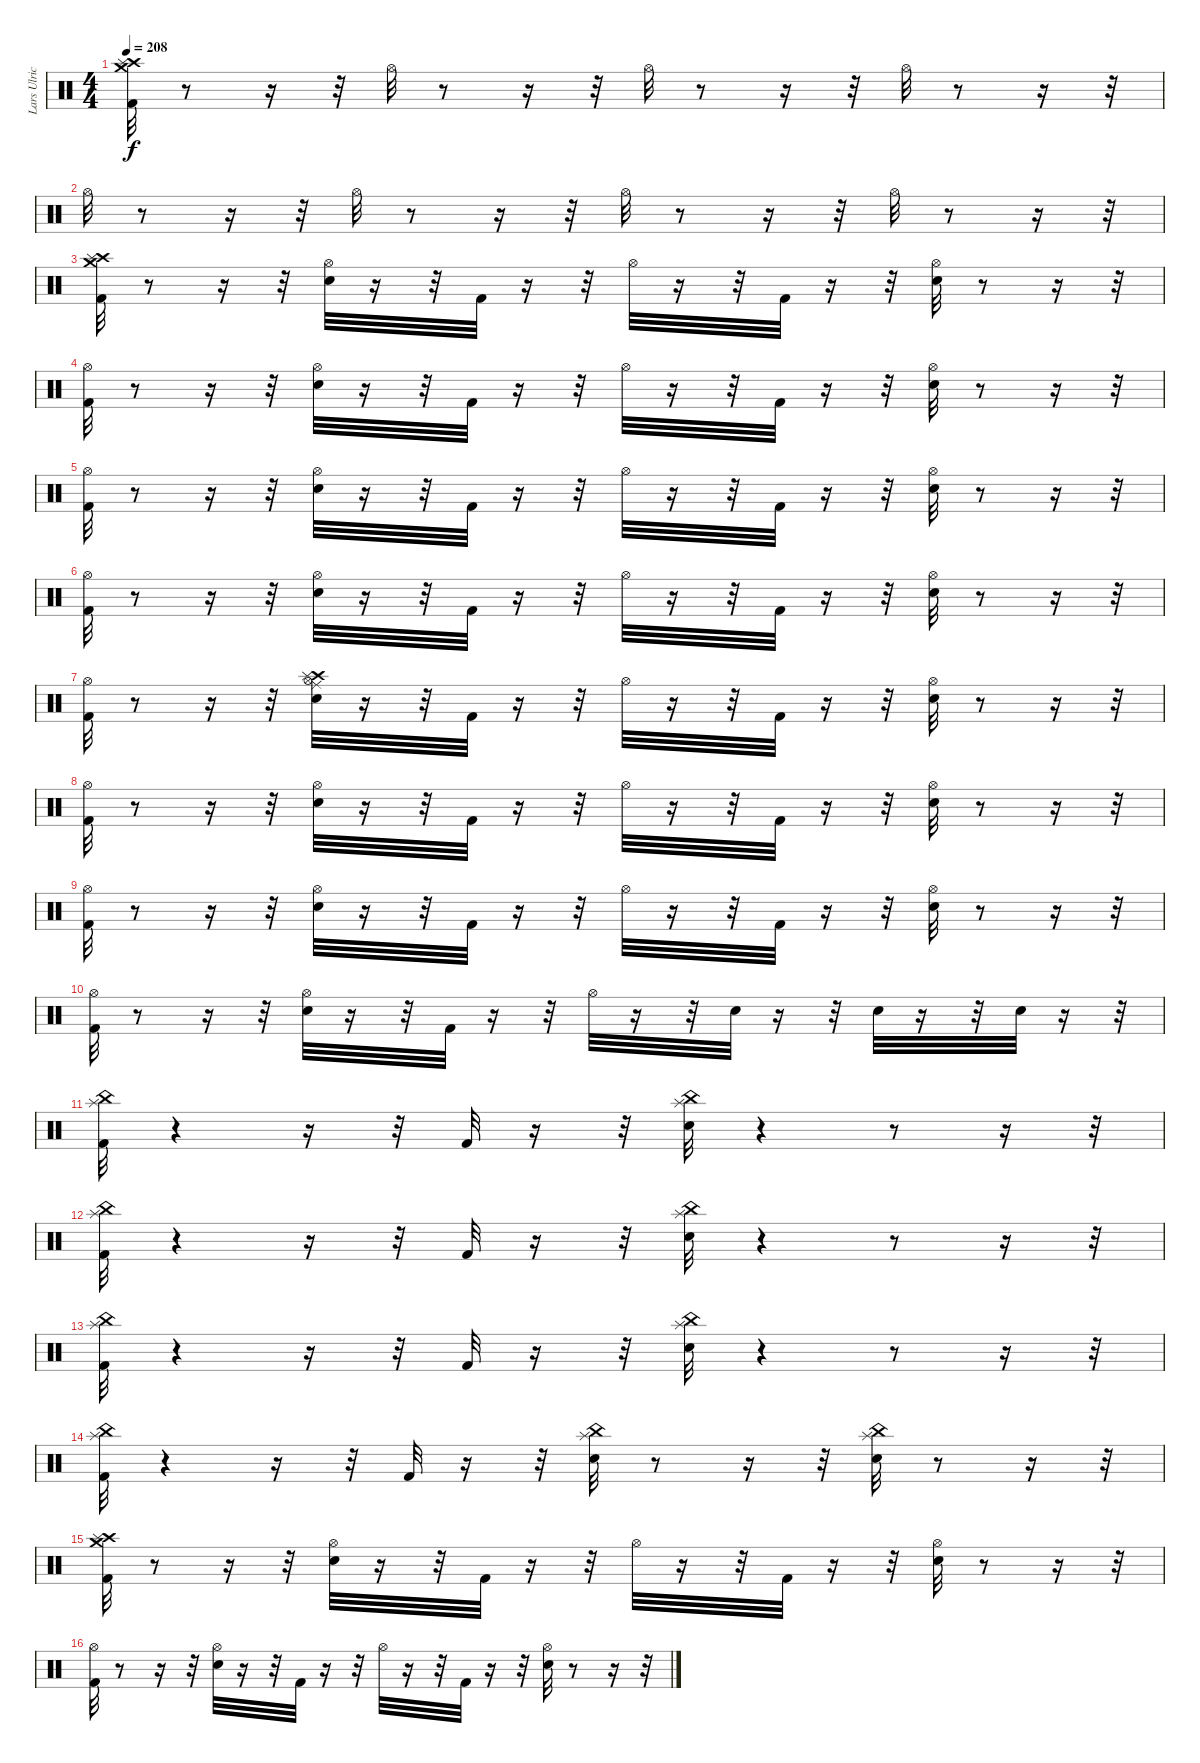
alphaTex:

\track ("Lars Ulrich (Drums)" "Lars Ulric") {instrument percussion}
\staff {score}
\articulation defaults
\ts (4 4)
\tempo 208
\clef neutral
\ks c
("Kick (hit) 2" "Crash high (hit)" "Crash medium (hit)" "Splash (hit)").32{dy f} r.8 r.16 r.32 "Hi-Hat (open)".32 r.8 r.16 r.32 "Hi-Hat (open)".32 r.8 r.16 r.32 "Hi-Hat (open)".32 r.8 r.16 r.32 |
"Hi-Hat (open)".32 r.8 r.16 r.32 "Hi-Hat (open)".32 r.8 r.16 r.32 "Hi-Hat (open)".32 r.8 r.16 r.32 "Hi-Hat (open)".32 r.8 r.16 r.32 |
("Kick (hit) 2" "Crash high (hit)" "Crash medium (hit)" "Splash (hit)").32 r.8 r.16 r.32 ("Snare (hit) 2" "Hi-Hat (open)").32 r.16 r.32 "Kick (hit) 2".32 r.16 r.32 "Hi-Hat (open)".32 r.16 r.32 "Kick (hit) 2".32 r.16 r.32 ("Snare (hit) 2" "Hi-Hat (open)").32 r.8 r.16 r.32 |
("Kick (hit) 2" "Hi-Hat (open)").32 r.8 r.16 r.32 ("Snare (hit) 2" "Hi-Hat (open)").32 r.16 r.32 "Kick (hit) 2".32 r.16 r.32 "Hi-Hat (open)".32 r.16 r.32 "Kick (hit) 2".32 r.16 r.32 ("Snare (hit) 2" "Hi-Hat (open)").32 r.8 r.16 r.32 |
("Kick (hit) 2" "Hi-Hat (open)").32 r.8 r.16 r.32 ("Snare (hit) 2" "Hi-Hat (open)").32 r.16 r.32 "Kick (hit) 2".32 r.16 r.32 "Hi-Hat (open)".32 r.16 r.32 "Kick (hit) 2".32 r.16 r.32 ("Snare (hit) 2" "Hi-Hat (open)").32 r.8 r.16 r.32 |
("Kick (hit) 2" "Hi-Hat (open)").32 r.8 r.16 r.32 ("Snare (hit) 2" "Hi-Hat (open)").32 r.16 r.32 "Kick (hit) 2".32 r.16 r.32 "Hi-Hat (open)".32 r.16 r.32 "Kick (hit) 2".32 r.16 r.32 ("Snare (hit) 2" "Hi-Hat (open)").32 r.8 r.16 r.32 |
("Kick (hit) 2" "Hi-Hat (open)").32 r.8 r.16 r.32 ("Crash high (hit)" "Ride (middle)" "Splash (hit)" "Snare (hit) 2" "Hi-Hat (open)").32 r.16 r.32 "Kick (hit) 2".32 r.16 r.32 "Hi-Hat (open)".32 r.16 r.32 "Kick (hit) 2".32 r.16 r.32 ("Snare (hit) 2" "Hi-Hat (open)").32 r.8 r.16 r.32 |
("Kick (hit) 2" "Hi-Hat (open)").32 r.8 r.16 r.32 ("Snare (hit) 2" "Hi-Hat (open)").32 r.16 r.32 "Kick (hit) 2".32 r.16 r.32 "Hi-Hat (open)".32 r.16 r.32 "Kick (hit) 2".32 r.16 r.32 ("Snare (hit) 2" "Hi-Hat (open)").32 r.8 r.16 r.32 |
("Kick (hit) 2" "Hi-Hat (open)").32 r.8 r.16 r.32 ("Snare (hit) 2" "Hi-Hat (open)").32 r.16 r.32 "Kick (hit) 2".32 r.16 r.32 "Hi-Hat (open)".32 r.16 r.32 "Kick (hit) 2".32 r.16 r.32 ("Snare (hit) 2" "Hi-Hat (open)").32 r.8 r.16 r.32 |
("Kick (hit) 2" "Hi-Hat (open)").32 r.8 r.16 r.32 ("Snare (hit) 2" "Hi-Hat (open)").32 r.16 r.32 "Kick (hit) 2".32 r.16 r.32 "Hi-Hat (open)".32 r.16 r.32 "Snare (hit) 2".32 r.16 r.32 "Snare (hit) 2".32 r.16 r.32 "Snare (hit) 2".32 r.16 r.32 |
("Kick (hit) 2" "China (hit)" "Splash (hit)").32 r.4 r.16 r.32 "Kick (hit) 2".32 r.16 r.32 ("Snare (hit) 2" "China (hit)" "Splash (hit)").32 r.4 r.8 r.16 r.32 |
("Kick (hit) 2" "China (hit)" "Splash (hit)").32 r.4 r.16 r.32 "Kick (hit) 2".32 r.16 r.32 ("Snare (hit) 2" "China (hit)" "Splash (hit)").32 r.4 r.8 r.16 r.32 |
("Kick (hit) 2" "China (hit)" "Splash (hit)").32 r.4 r.16 r.32 "Kick (hit) 2".32 r.16 r.32 ("Snare (hit) 2" "China (hit)" "Splash (hit)").32 r.4 r.8 r.16 r.32 |
("Kick (hit) 2" "China (hit)" "Splash (hit)").32 r.4 r.16 r.32 "Kick (hit) 2".32 r.16 r.32 ("Snare (hit) 2" "China (hit)" "Splash (hit)").32 r.8 r.16 r.32 ("Splash (hit)" "China (hit)" "Snare (hit) 2").32 r.8 r.16 r.32 |
("Kick (hit) 2" "Crash high (hit)" "Crash medium (hit)" "Splash (hit)").32 r.8 r.16 r.32 ("Snare (hit) 2" "Hi-Hat (open)").32 r.16 r.32 "Kick (hit) 2".32 r.16 r.32 "Hi-Hat (open)".32 r.16 r.32 "Kick (hit) 2".32 r.16 r.32 ("Snare (hit) 2" "Hi-Hat (open)").32 r.8 r.16 r.32 |
("Kick (hit) 2" "Hi-Hat (open)").32 r.8 r.16 r.32 ("Snare (hit) 2" "Hi-Hat (open)").32 r.16 r.32 "Kick (hit) 2".32 r.16 r.32 "Hi-Hat (open)".32 r.16 r.32 "Kick (hit) 2".32 r.16 r.32 ("Snare (hit) 2" "Hi-Hat (open)").32 r.8 r.16 r.32
